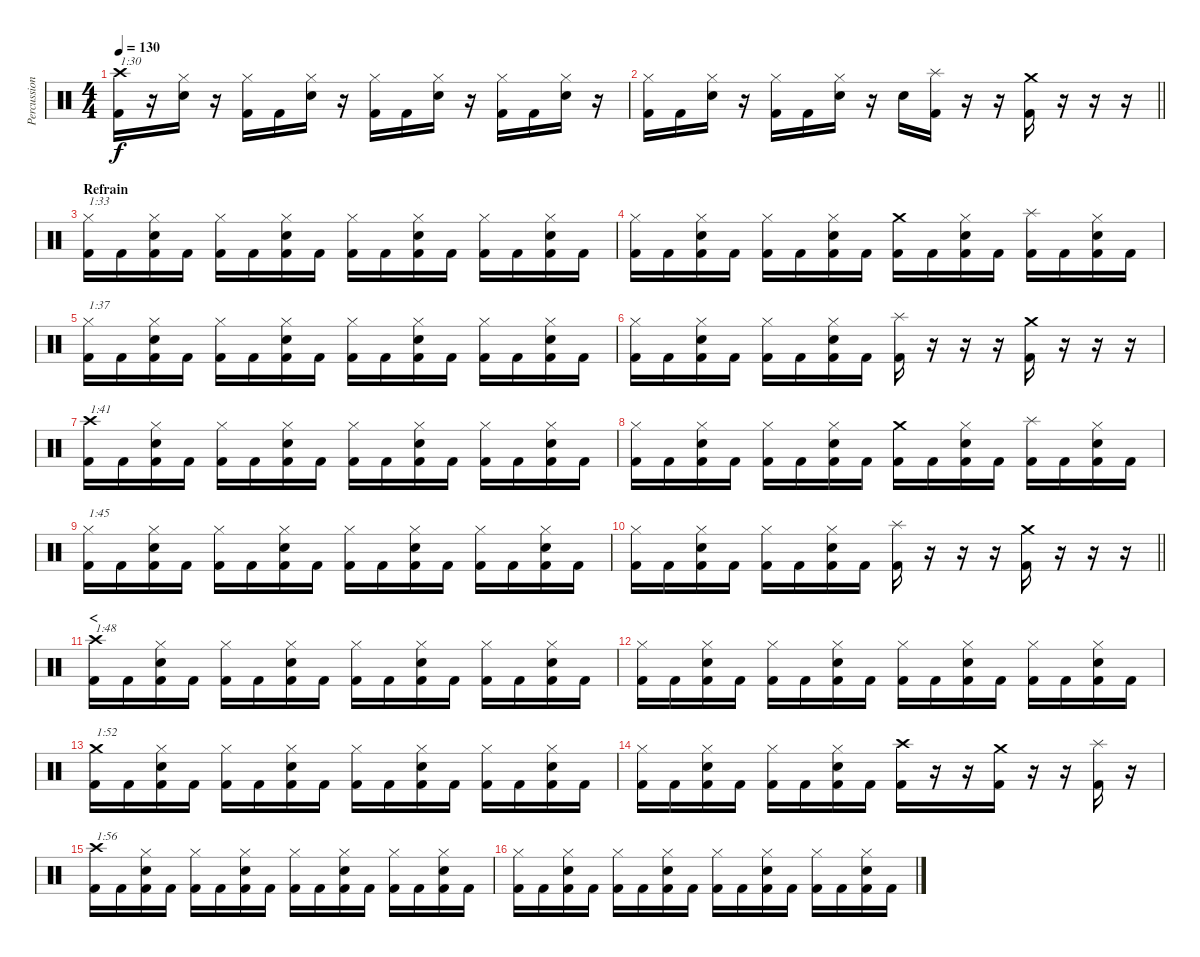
\track ("Percussion" "Percussion") {instrument percussion}
\staff {score}
\articulation defaults
\ts (4 4)
\tempo 130
\clef neutral
\ks c
("Crash high (hit)" "Kick (hit) 2").16{txt "1:30" dy f} r.16 ("Hi-Hat (closed)" "Electric Snare (hit)").16 r.16 ("Hi-Hat (closed)" "Kick (hit) 2").16 "Kick (hit) 2".16 ("Hi-Hat (closed)" "Electric Snare (hit)").16 r.16 ("Hi-Hat (closed)" "Kick (hit) 2").16 "Kick (hit) 2".16 ("Hi-Hat (closed)" "Electric Snare (hit)").16 r.16 ("Hi-Hat (closed)" "Kick (hit) 2").16 "Kick (hit) 2".16 ("Hi-Hat (closed)" "Electric Snare (hit)").16 r.16 |
\barLineRight lightlight
("Hi-Hat (closed)" "Kick (hit) 2").16 "Kick (hit) 2".16 ("Hi-Hat (closed)" "Electric Snare (hit)").16 r.16 ("Hi-Hat (closed)" "Kick (hit) 2").16 "Kick (hit) 2".16 ("Hi-Hat (closed)" "Electric Snare (hit)").16 r.16 "Electric Snare (hit)".16 ("Splash (hit)" "Kick (hit) 2").16 r.16 r.16 ("Crash medium (hit)" "Kick (hit) 2").16 r.16 r.16 r.16 |
\section ("" "Refrain")
("Hi-Hat (closed)" "Kick (hit) 2").16{txt "1:33"} "Kick (hit) 2".16 ("Hi-Hat (closed)" "Electric Snare (hit)" "Kick (hit) 2").16 "Kick (hit) 2".16 ("Hi-Hat (closed)" "Kick (hit) 2").16 "Kick (hit) 2".16 ("Hi-Hat (closed)" "Electric Snare (hit)" "Kick (hit) 2").16 "Kick (hit) 2".16 ("Hi-Hat (closed)" "Kick (hit) 2").16 "Kick (hit) 2".16 ("Hi-Hat (closed)" "Electric Snare (hit)" "Kick (hit) 2").16 "Kick (hit) 2".16 ("Hi-Hat (closed)" "Kick (hit) 2").16 "Kick (hit) 2".16 ("Hi-Hat (closed)" "Electric Snare (hit)" "Kick (hit) 2").16 "Kick (hit) 2".16 |
("Hi-Hat (closed)" "Kick (hit) 2").16 "Kick (hit) 2".16 ("Hi-Hat (closed)" "Electric Snare (hit)" "Kick (hit) 2").16 "Kick (hit) 2".16 ("Hi-Hat (closed)" "Kick (hit) 2").16 "Kick (hit) 2".16 ("Hi-Hat (closed)" "Electric Snare (hit)" "Kick (hit) 2").16 "Kick (hit) 2".16 ("Crash medium (hit)" "Kick (hit) 2").16 "Kick (hit) 2".16 ("Hi-Hat (closed)" "Electric Snare (hit)" "Kick (hit) 2").16 "Kick (hit) 2".16 ("Splash (hit)" "Kick (hit) 2").16 "Kick (hit) 2".16 ("Hi-Hat (closed)" "Electric Snare (hit)" "Kick (hit) 2").16 "Kick (hit) 2".16 |
("Hi-Hat (closed)" "Kick (hit) 2").16{txt "1:37"} "Kick (hit) 2".16 ("Hi-Hat (closed)" "Electric Snare (hit)" "Kick (hit) 2").16 "Kick (hit) 2".16 ("Hi-Hat (closed)" "Kick (hit) 2").16 "Kick (hit) 2".16 ("Hi-Hat (closed)" "Electric Snare (hit)" "Kick (hit) 2").16 "Kick (hit) 2".16 ("Hi-Hat (closed)" "Kick (hit) 2").16 "Kick (hit) 2".16 ("Hi-Hat (closed)" "Electric Snare (hit)" "Kick (hit) 2").16 "Kick (hit) 2".16 ("Hi-Hat (closed)" "Kick (hit) 2").16 "Kick (hit) 2".16 ("Hi-Hat (closed)" "Electric Snare (hit)" "Kick (hit) 2").16 "Kick (hit) 2".16 |
("Hi-Hat (closed)" "Kick (hit) 2").16 "Kick (hit) 2".16 ("Hi-Hat (closed)" "Electric Snare (hit)" "Kick (hit) 2").16 "Kick (hit) 2".16 ("Hi-Hat (closed)" "Kick (hit) 2").16 "Kick (hit) 2".16 ("Hi-Hat (closed)" "Electric Snare (hit)" "Kick (hit) 2").16 "Kick (hit) 2".16 ("Splash (hit)" "Kick (hit) 2").16 r.16 r.16 r.16 ("Crash medium (hit)" "Kick (hit) 2").16 r.16 r.16 r.16 |
("Crash high (hit)" "Kick (hit) 2").16{txt "1:41"} "Kick (hit) 2".16 ("Hi-Hat (closed)" "Electric Snare (hit)" "Kick (hit) 2").16 "Kick (hit) 2".16 ("Hi-Hat (closed)" "Kick (hit) 2").16 "Kick (hit) 2".16 ("Hi-Hat (closed)" "Electric Snare (hit)" "Kick (hit) 2").16 "Kick (hit) 2".16 ("Hi-Hat (closed)" "Kick (hit) 2").16 "Kick (hit) 2".16 ("Hi-Hat (closed)" "Electric Snare (hit)" "Kick (hit) 2").16 "Kick (hit) 2".16 ("Hi-Hat (closed)" "Kick (hit) 2").16 "Kick (hit) 2".16 ("Hi-Hat (closed)" "Electric Snare (hit)" "Kick (hit) 2").16 "Kick (hit) 2".16 |
("Hi-Hat (closed)" "Kick (hit) 2").16 "Kick (hit) 2".16 ("Hi-Hat (closed)" "Electric Snare (hit)" "Kick (hit) 2").16 "Kick (hit) 2".16 ("Hi-Hat (closed)" "Kick (hit) 2").16 "Kick (hit) 2".16 ("Hi-Hat (closed)" "Electric Snare (hit)" "Kick (hit) 2").16 "Kick (hit) 2".16 ("Crash medium (hit)" "Kick (hit) 2").16 "Kick (hit) 2".16 ("Hi-Hat (closed)" "Electric Snare (hit)" "Kick (hit) 2").16 "Kick (hit) 2".16 ("Splash (hit)" "Kick (hit) 2").16 "Kick (hit) 2".16 ("Hi-Hat (closed)" "Electric Snare (hit)" "Kick (hit) 2").16 "Kick (hit) 2".16 |
("Hi-Hat (closed)" "Kick (hit) 2").16{txt "1:45"} "Kick (hit) 2".16 ("Hi-Hat (closed)" "Electric Snare (hit)" "Kick (hit) 2").16 "Kick (hit) 2".16 ("Hi-Hat (closed)" "Kick (hit) 2").16 "Kick (hit) 2".16 ("Hi-Hat (closed)" "Electric Snare (hit)" "Kick (hit) 2").16 "Kick (hit) 2".16 ("Hi-Hat (closed)" "Kick (hit) 2").16 "Kick (hit) 2".16 ("Hi-Hat (closed)" "Electric Snare (hit)" "Kick (hit) 2").16 "Kick (hit) 2".16 ("Hi-Hat (closed)" "Kick (hit) 2").16 "Kick (hit) 2".16 ("Hi-Hat (closed)" "Electric Snare (hit)" "Kick (hit) 2").16 "Kick (hit) 2".16 |
\barLineRight lightlight
("Hi-Hat (closed)" "Kick (hit) 2").16 "Kick (hit) 2".16 ("Hi-Hat (closed)" "Electric Snare (hit)" "Kick (hit) 2").16 "Kick (hit) 2".16 ("Hi-Hat (closed)" "Kick (hit) 2").16 "Kick (hit) 2".16 ("Hi-Hat (closed)" "Electric Snare (hit)" "Kick (hit) 2").16 "Kick (hit) 2".16 ("Splash (hit)" "Kick (hit) 2").16 r.16 r.16 r.16 ("Crash medium (hit)" "Kick (hit) 2").16 r.16 r.16 r.16 |
\section ("" "<")
("Crash high (hit)" "Kick (hit) 2").16{txt "1:48"} "Kick (hit) 2".16 ("Hi-Hat (closed)" "Electric Snare (hit)" "Kick (hit) 2").16 "Kick (hit) 2".16 ("Hi-Hat (closed)" "Kick (hit) 2").16 "Kick (hit) 2".16 ("Hi-Hat (closed)" "Electric Snare (hit)" "Kick (hit) 2").16 "Kick (hit) 2".16 ("Hi-Hat (closed)" "Kick (hit) 2").16 "Kick (hit) 2".16 ("Hi-Hat (closed)" "Electric Snare (hit)" "Kick (hit) 2").16 "Kick (hit) 2".16 ("Hi-Hat (closed)" "Kick (hit) 2").16 "Kick (hit) 2".16 ("Hi-Hat (closed)" "Electric Snare (hit)" "Kick (hit) 2").16 "Kick (hit) 2".16 |
("Hi-Hat (closed)" "Kick (hit) 2").16 "Kick (hit) 2".16 ("Hi-Hat (closed)" "Electric Snare (hit)" "Kick (hit) 2").16 "Kick (hit) 2".16 ("Hi-Hat (closed)" "Kick (hit) 2").16 "Kick (hit) 2".16 ("Hi-Hat (closed)" "Electric Snare (hit)" "Kick (hit) 2").16 "Kick (hit) 2".16 ("Hi-Hat (closed)" "Kick (hit) 2").16 "Kick (hit) 2".16 ("Hi-Hat (closed)" "Electric Snare (hit)" "Kick (hit) 2").16 "Kick (hit) 2".16 ("Hi-Hat (closed)" "Kick (hit) 2").16 "Kick (hit) 2".16 ("Hi-Hat (closed)" "Electric Snare (hit)" "Kick (hit) 2").16 "Kick (hit) 2".16 |
("Crash medium (hit)" "Kick (hit) 2").16{txt "1:52"} "Kick (hit) 2".16 ("Hi-Hat (closed)" "Electric Snare (hit)" "Kick (hit) 2").16 "Kick (hit) 2".16 ("Hi-Hat (closed)" "Kick (hit) 2").16 "Kick (hit) 2".16 ("Hi-Hat (closed)" "Electric Snare (hit)" "Kick (hit) 2").16 "Kick (hit) 2".16 ("Hi-Hat (closed)" "Kick (hit) 2").16 "Kick (hit) 2".16 ("Hi-Hat (closed)" "Electric Snare (hit)" "Kick (hit) 2").16 "Kick (hit) 2".16 ("Hi-Hat (closed)" "Kick (hit) 2").16 "Kick (hit) 2".16 ("Hi-Hat (closed)" "Electric Snare (hit)" "Kick (hit) 2").16 "Kick (hit) 2".16 |
("Hi-Hat (closed)" "Kick (hit) 2").16 "Kick (hit) 2".16 ("Hi-Hat (closed)" "Electric Snare (hit)" "Kick (hit) 2").16 "Kick (hit) 2".16 ("Hi-Hat (closed)" "Kick (hit) 2").16 "Kick (hit) 2".16 ("Hi-Hat (closed)" "Electric Snare (hit)" "Kick (hit) 2").16 "Kick (hit) 2".16 ("Crash high (hit)" "Kick (hit) 2").16 r.16 r.16 ("Crash medium (hit)" "Kick (hit) 2").16 r.16 r.16 ("Splash (hit)" "Kick (hit) 2").16 r.16 |
("Crash high (hit)" "Kick (hit) 2").16{txt "1:56"} "Kick (hit) 2".16 ("Hi-Hat (closed)" "Electric Snare (hit)" "Kick (hit) 2").16 "Kick (hit) 2".16 ("Hi-Hat (closed)" "Kick (hit) 2").16 "Kick (hit) 2".16 ("Hi-Hat (closed)" "Electric Snare (hit)" "Kick (hit) 2").16 "Kick (hit) 2".16 ("Hi-Hat (closed)" "Kick (hit) 2").16 "Kick (hit) 2".16 ("Hi-Hat (closed)" "Electric Snare (hit)" "Kick (hit) 2").16 "Kick (hit) 2".16 ("Hi-Hat (closed)" "Kick (hit) 2").16 "Kick (hit) 2".16 ("Hi-Hat (closed)" "Electric Snare (hit)" "Kick (hit) 2").16 "Kick (hit) 2".16 |
("Hi-Hat (closed)" "Kick (hit) 2").16 "Kick (hit) 2".16 ("Hi-Hat (closed)" "Electric Snare (hit)" "Kick (hit) 2").16 "Kick (hit) 2".16 ("Hi-Hat (closed)" "Kick (hit) 2").16 "Kick (hit) 2".16 ("Hi-Hat (closed)" "Electric Snare (hit)" "Kick (hit) 2").16 "Kick (hit) 2".16 ("Hi-Hat (closed)" "Kick (hit) 2").16 "Kick (hit) 2".16 ("Hi-Hat (closed)" "Electric Snare (hit)" "Kick (hit) 2").16 "Kick (hit) 2".16 ("Hi-Hat (closed)" "Kick (hit) 2").16 "Kick (hit) 2".16 ("Hi-Hat (closed)" "Electric Snare (hit)" "Kick (hit) 2").16 "Kick (hit) 2".16
